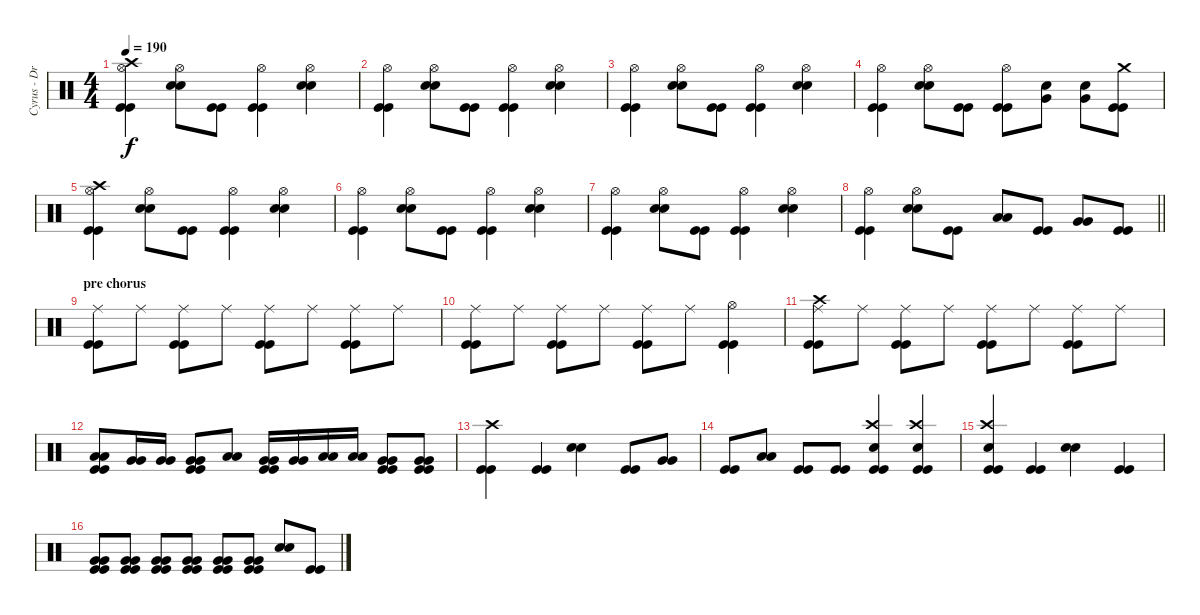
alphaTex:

\track ("Cyrus - Drums" "Cyrus - Dr") {instrument percussion}
\staff {score}
\articulation defaults
\ts (4 4)
\tempo 190
\clef neutral
\ks c
("Kick (hit)" "Kick (hit)" "Hi-Hat (open)" "Crash high (hit)").4{dy f} ("Snare (hit) 2" "Snare (hit) 2" "Hi-Hat (open)").8 ("Kick (hit)" "Kick (hit)").8 ("Kick (hit)" "Kick (hit)" "Hi-Hat (open)").4 ("Snare (hit) 2" "Snare (hit) 2" "Hi-Hat (open)").4 |
("Kick (hit)" "Kick (hit)" "Hi-Hat (open)").4 ("Snare (hit) 2" "Snare (hit) 2" "Hi-Hat (open)").8 ("Kick (hit)" "Kick (hit)").8 ("Kick (hit)" "Kick (hit)" "Hi-Hat (open)").4 ("Snare (hit) 2" "Snare (hit) 2" "Hi-Hat (open)").4 |
("Kick (hit)" "Kick (hit)" "Hi-Hat (open)").4 ("Snare (hit) 2" "Snare (hit) 2" "Hi-Hat (open)").8 ("Kick (hit)" "Kick (hit)").8 ("Kick (hit)" "Kick (hit)" "Hi-Hat (open)").4 ("Snare (hit) 2" "Snare (hit) 2" "Hi-Hat (open)").4 |
("Kick (hit)" "Kick (hit)" "Hi-Hat (open)").4 ("Snare (hit) 2" "Snare (hit) 2" "Hi-Hat (open)").8 ("Kick (hit)" "Kick (hit)").8 ("Kick (hit)" "Kick (hit)" "Hi-Hat (open)").8 ("Very Low Tom (hit)" "Snare (hit) 2").8 ("Very Low Tom (hit)" "Snare (hit) 2").8 ("Kick (hit)" "Kick (hit)" "Crash medium (hit)").8 |
("Kick (hit)" "Kick (hit)" "Hi-Hat (open)" "Crash high (hit)").4 ("Snare (hit) 2" "Snare (hit) 2" "Hi-Hat (open)").8 ("Kick (hit)" "Kick (hit)").8 ("Kick (hit)" "Kick (hit)" "Hi-Hat (open)").4 ("Snare (hit) 2" "Snare (hit) 2" "Hi-Hat (open)").4 |
("Kick (hit)" "Kick (hit)" "Hi-Hat (open)").4 ("Snare (hit) 2" "Snare (hit) 2" "Hi-Hat (open)").8 ("Kick (hit)" "Kick (hit)").8 ("Kick (hit)" "Kick (hit)" "Hi-Hat (open)").4 ("Snare (hit) 2" "Snare (hit) 2" "Hi-Hat (open)").4 |
("Kick (hit)" "Kick (hit)" "Hi-Hat (open)").4 ("Snare (hit) 2" "Snare (hit) 2" "Hi-Hat (open)").8 ("Kick (hit)" "Kick (hit)").8 ("Kick (hit)" "Kick (hit)" "Hi-Hat (open)").4 ("Snare (hit) 2" "Snare (hit) 2" "Hi-Hat (open)").4 |
\barLineRight lightlight
("Kick (hit)" "Kick (hit)" "Hi-Hat (open)").4 ("Snare (hit) 2" "Snare (hit) 2" "Hi-Hat (open)").8 ("Kick (hit)" "Kick (hit)").8 ("Low Tom (hit)" "Low Tom (hit)").8 ("Kick (hit)" "Kick (hit)").8 ("Very Low Tom (hit)" "Very Low Tom (hit)").8 ("Kick (hit)" "Kick (hit)").8 |
\section ("" "pre chorus")
("Kick (hit)" "Kick (hit)" "Ride (middle)").8 "Ride (middle)".8 ("Kick (hit)" "Kick (hit)" "Ride (middle)").8 "Ride (middle)".8 ("Kick (hit)" "Kick (hit)" "Ride (middle)").8 "Ride (middle)".8 ("Kick (hit)" "Kick (hit)" "Ride (middle)").8 "Ride (middle)".8 |
("Kick (hit)" "Kick (hit)" "Ride (middle)").8 "Ride (middle)".8 ("Kick (hit)" "Kick (hit)" "Ride (middle)").8 "Ride (middle)".8 ("Kick (hit)" "Kick (hit)" "Ride (middle)").8 "Ride (middle)".8 ("Kick (hit)" "Kick (hit)" "Hi-Hat (open)").4 |
("Kick (hit)" "Kick (hit)" "Ride (middle)" "Crash high (hit)").8 "Ride (middle)".8 ("Kick (hit)" "Kick (hit)" "Ride (middle)").8 "Ride (middle)".8 ("Kick (hit)" "Kick (hit)" "Ride (middle)").8 "Ride (middle)".8 ("Kick (hit)" "Kick (hit)" "Ride (middle)").8 "Ride (middle)".8 |
("Kick (hit)" "Kick (hit)" "Low Tom (hit)" "Low Tom (hit)").8 ("Very Low Tom (hit)" "Very Low Tom (hit)").16 ("Very Low Tom (hit)" "Very Low Tom (hit)").16 ("Kick (hit)" "Kick (hit)" "Very Low Tom (hit)" "Very Low Tom (hit)").8 ("Low Tom (hit)" "Low Tom (hit)").8 ("Kick (hit)" "Kick (hit)" "Very Low Tom (hit)" "Very Low Tom (hit)").16 ("Very Low Tom (hit)" "Very Low Tom (hit)").16 ("Low Floor Tom (hit)" "Low Floor Tom (hit)").16 ("Low Floor Tom (hit)" "Low Floor Tom (hit)").16 ("Kick (hit)" "Kick (hit)" "Very Low Tom (hit)" "Very Low Tom (hit)").8 ("Kick (hit)" "Kick (hit)" "Very Low Tom (hit)" "Very Low Tom (hit)").8 |
("Kick (hit)" "Kick (hit)" "Crash high (hit)").4 ("Kick (hit)" "Kick (hit)").4 ("Snare (hit) 2" "Snare (hit) 2").4 ("Kick (hit)" "Kick (hit)").8 ("Very Low Tom (hit)" "Very Low Tom (hit)").8 |
("Kick (hit)" "Kick (hit)").8 ("Low Tom (hit)" "Low Tom (hit)").8 ("Kick (hit)" "Kick (hit)").8 ("Kick (hit)" "Kick (hit)").8 ("Kick (hit)" "Kick (hit)" "Snare (hit) 2" "Crash high (hit)").4 ("Kick (hit)" "Kick (hit)" "Snare (hit) 2" "Crash high (hit)").4 |
("Kick (hit)" "Kick (hit)" "Snare (hit) 2" "Crash high (hit)").4 ("Kick (hit)" "Kick (hit)").4 ("Snare (hit) 2" "Snare (hit) 2").4 ("Kick (hit)" "Kick (hit)").4 |
("Kick (hit)" "Kick (hit)" "Very Low Tom (hit)" "Very Low Tom (hit)").8 ("Kick (hit)" "Kick (hit)" "Very Low Tom (hit)" "Very Low Tom (hit)").8 ("Kick (hit)" "Kick (hit)" "Very Low Tom (hit)" "Very Low Tom (hit)").8 ("Kick (hit)" "Kick (hit)" "Very Low Tom (hit)" "Very Low Tom (hit)").8 ("Kick (hit)" "Kick (hit)" "Very Low Tom (hit)" "Very Low Tom (hit)").8 ("Kick (hit)" "Kick (hit)" "Very Low Tom (hit)" "Very Low Tom (hit)").8 ("Snare (hit) 2" "Snare (hit) 2").8 ("Kick (hit)" "Kick (hit)").8
